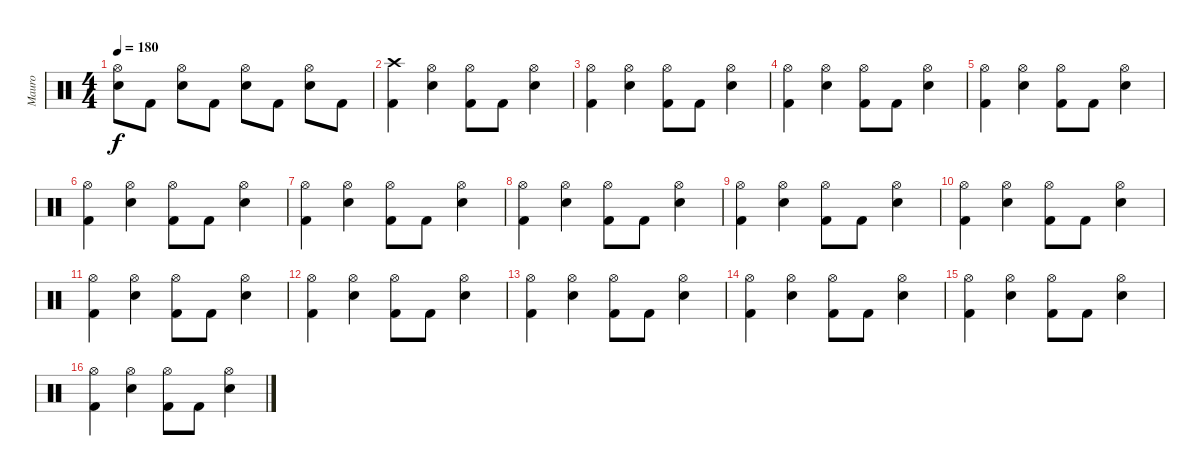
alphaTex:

\track ("Mauro" "Mauro") {instrument percussion}
\staff {score}
\articulation defaults
\ts (4 4)
\tempo 180
\clef neutral
\ks c
("Hi-Hat (open)" "Snare (hit) 2").8{dy f} "Kick (hit) 2".8 ("Hi-Hat (open)" "Snare (hit) 2").8 "Kick (hit) 2".8 ("Hi-Hat (open)" "Snare (hit) 2").8 "Kick (hit) 2".8 ("Hi-Hat (open)" "Snare (hit) 2").8 "Kick (hit) 2".8 |
("Crash high (hit)" "Kick (hit) 2").4 ("Hi-Hat (open)" "Snare (hit) 2").4 ("Hi-Hat (open)" "Kick (hit) 2").8 "Kick (hit) 2".8 ("Hi-Hat (open)" "Snare (hit) 2").4 |
("Hi-Hat (open)" "Kick (hit) 2").4 ("Hi-Hat (open)" "Snare (hit) 2").4 ("Hi-Hat (open)" "Kick (hit) 2").8 "Kick (hit) 2".8 ("Hi-Hat (open)" "Snare (hit) 2").4 |
("Hi-Hat (open)" "Kick (hit) 2").4 ("Hi-Hat (open)" "Snare (hit) 2").4 ("Hi-Hat (open)" "Kick (hit) 2").8 "Kick (hit) 2".8 ("Hi-Hat (open)" "Snare (hit) 2").4 |
("Hi-Hat (open)" "Kick (hit) 2").4 ("Hi-Hat (open)" "Snare (hit) 2").4 ("Hi-Hat (open)" "Kick (hit) 2").8 "Kick (hit) 2".8 ("Hi-Hat (open)" "Snare (hit) 2").4 |
("Hi-Hat (open)" "Kick (hit) 2").4 ("Hi-Hat (open)" "Snare (hit) 2").4 ("Hi-Hat (open)" "Kick (hit) 2").8 "Kick (hit) 2".8 ("Hi-Hat (open)" "Snare (hit) 2").4 |
("Hi-Hat (open)" "Kick (hit) 2").4 ("Hi-Hat (open)" "Snare (hit) 2").4 ("Hi-Hat (open)" "Kick (hit) 2").8 "Kick (hit) 2".8 ("Hi-Hat (open)" "Snare (hit) 2").4 |
("Hi-Hat (open)" "Kick (hit) 2").4 ("Hi-Hat (open)" "Snare (hit) 2").4 ("Hi-Hat (open)" "Kick (hit) 2").8 "Kick (hit) 2".8 ("Hi-Hat (open)" "Snare (hit) 2").4 |
("Hi-Hat (open)" "Kick (hit) 2").4 ("Hi-Hat (open)" "Snare (hit) 2").4 ("Hi-Hat (open)" "Kick (hit) 2").8 "Kick (hit) 2".8 ("Hi-Hat (open)" "Snare (hit) 2").4 |
("Hi-Hat (open)" "Kick (hit) 2").4 ("Hi-Hat (open)" "Snare (hit) 2").4 ("Hi-Hat (open)" "Kick (hit) 2").8 "Kick (hit) 2".8 ("Hi-Hat (open)" "Snare (hit) 2").4 |
("Hi-Hat (open)" "Kick (hit) 2").4 ("Hi-Hat (open)" "Snare (hit) 2").4 ("Hi-Hat (open)" "Kick (hit) 2").8 "Kick (hit) 2".8 ("Hi-Hat (open)" "Snare (hit) 2").4 |
("Hi-Hat (open)" "Kick (hit) 2").4 ("Hi-Hat (open)" "Snare (hit) 2").4 ("Hi-Hat (open)" "Kick (hit) 2").8 "Kick (hit) 2".8 ("Hi-Hat (open)" "Snare (hit) 2").4 |
("Hi-Hat (open)" "Kick (hit) 2").4 ("Hi-Hat (open)" "Snare (hit) 2").4 ("Hi-Hat (open)" "Kick (hit) 2").8 "Kick (hit) 2".8 ("Hi-Hat (open)" "Snare (hit) 2").4 |
("Hi-Hat (open)" "Kick (hit) 2").4 ("Hi-Hat (open)" "Snare (hit) 2").4 ("Hi-Hat (open)" "Kick (hit) 2").8 "Kick (hit) 2".8 ("Hi-Hat (open)" "Snare (hit) 2").4 |
("Hi-Hat (open)" "Kick (hit) 2").4 ("Hi-Hat (open)" "Snare (hit) 2").4 ("Hi-Hat (open)" "Kick (hit) 2").8 "Kick (hit) 2".8 ("Hi-Hat (open)" "Snare (hit) 2").4 |
("Hi-Hat (open)" "Kick (hit) 2").4 ("Hi-Hat (open)" "Snare (hit) 2").4 ("Hi-Hat (open)" "Kick (hit) 2").8 "Kick (hit) 2".8 ("Hi-Hat (open)" "Snare (hit) 2").4
